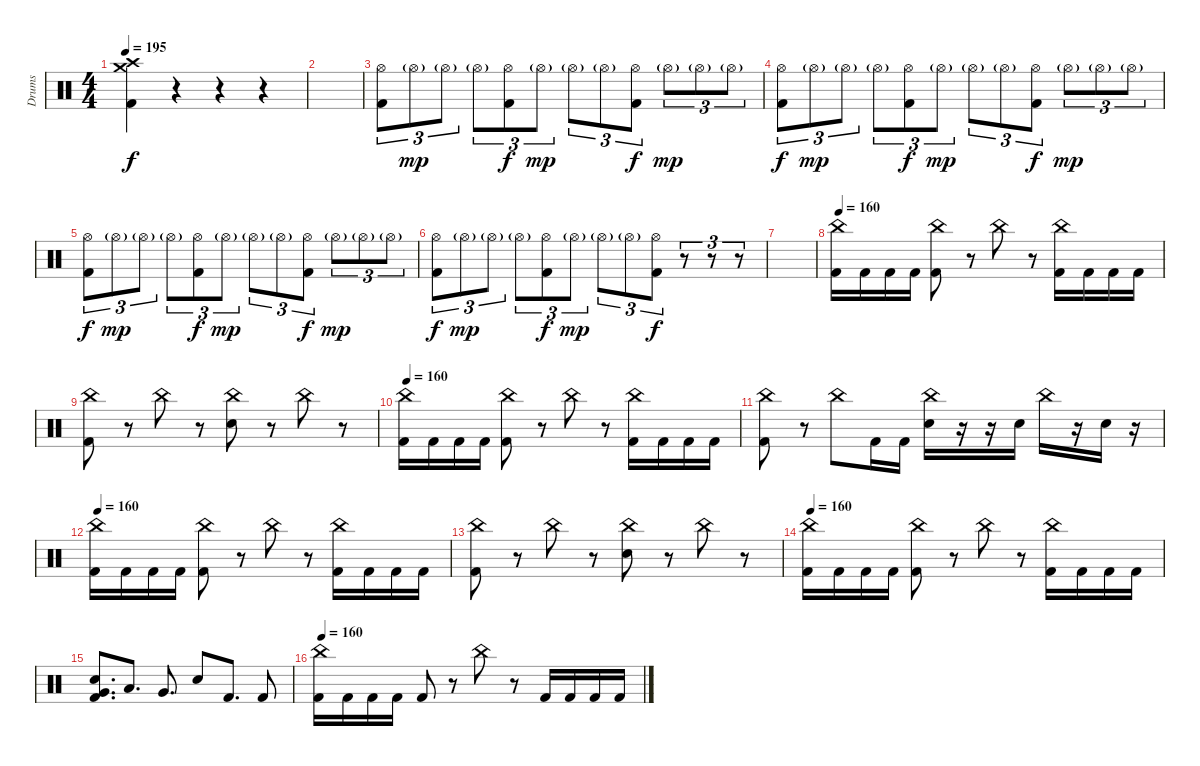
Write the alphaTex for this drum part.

\track ("Drums" "Drums") {instrument percussion}
\staff {score}
\articulation defaults
\ts (4 4)
\tempo 195
\clef neutral
\ks c
("Crash high (hit)" "Crash medium (hit)" "Kick (hit) 2").4{dy f} r.4 r.4 r.4 |
|
("Hi-Hat (open)" "Kick (hit) 2").8{tu (3 2)} "Hi-Hat (open)"{g}.8{tu (3 2) dy mp} "Hi-Hat (open)"{g}.8{tu (3 2)} "Hi-Hat (open)"{g}.8{tu (3 2)} ("Hi-Hat (open)" "Kick (hit) 2").8{tu (3 2) dy f} "Hi-Hat (open)"{g}.8{tu (3 2) dy mp} "Hi-Hat (open)"{g}.8{tu (3 2)} "Hi-Hat (open)"{g}.8{tu (3 2)} ("Hi-Hat (open)" "Kick (hit) 2").8{tu (3 2) dy f} "Hi-Hat (open)"{g}.8{tu (3 2) dy mp} "Hi-Hat (open)"{g}.8{tu (3 2)} "Hi-Hat (open)"{g}.8{tu (3 2)} |
("Hi-Hat (open)" "Kick (hit) 2").8{tu (3 2) dy f} "Hi-Hat (open)"{g}.8{tu (3 2) dy mp} "Hi-Hat (open)"{g}.8{tu (3 2)} "Hi-Hat (open)"{g}.8{tu (3 2)} ("Hi-Hat (open)" "Kick (hit) 2").8{tu (3 2) dy f} "Hi-Hat (open)"{g}.8{tu (3 2) dy mp} "Hi-Hat (open)"{g}.8{tu (3 2)} "Hi-Hat (open)"{g}.8{tu (3 2)} ("Hi-Hat (open)" "Kick (hit) 2").8{tu (3 2) dy f} "Hi-Hat (open)"{g}.8{tu (3 2) dy mp} "Hi-Hat (open)"{g}.8{tu (3 2)} "Hi-Hat (open)"{g}.8{tu (3 2)} |
("Hi-Hat (open)" "Kick (hit) 2").8{tu (3 2) dy f} "Hi-Hat (open)"{g}.8{tu (3 2) dy mp} "Hi-Hat (open)"{g}.8{tu (3 2)} "Hi-Hat (open)"{g}.8{tu (3 2)} ("Hi-Hat (open)" "Kick (hit) 2").8{tu (3 2) dy f} "Hi-Hat (open)"{g}.8{tu (3 2) dy mp} "Hi-Hat (open)"{g}.8{tu (3 2)} "Hi-Hat (open)"{g}.8{tu (3 2)} ("Hi-Hat (open)" "Kick (hit) 2").8{tu (3 2) dy f} "Hi-Hat (open)"{g}.8{tu (3 2) dy mp} "Hi-Hat (open)"{g}.8{tu (3 2)} "Hi-Hat (open)"{g}.8{tu (3 2)} |
("Hi-Hat (open)" "Kick (hit) 2").8{tu (3 2) dy f} "Hi-Hat (open)"{g}.8{tu (3 2) dy mp} "Hi-Hat (open)"{g}.8{tu (3 2)} "Hi-Hat (open)"{g}.8{tu (3 2)} ("Hi-Hat (open)" "Kick (hit) 2").8{tu (3 2) dy f} "Hi-Hat (open)"{g}.8{tu (3 2) dy mp} "Hi-Hat (open)"{g}.8{tu (3 2)} "Hi-Hat (open)"{g}.8{tu (3 2)} ("Hi-Hat (open)" "Kick (hit) 2").8{tu (3 2) dy f} r.8{tu (3 2)} r.8{tu (3 2)} r.8{tu (3 2)} |
|
\tempo 160
("China (hit)" "Kick (hit) 2").16 "Kick (hit) 2".16 "Kick (hit) 2".16 "Kick (hit) 2".16 ("China (hit)" "Kick (hit) 2").8 r.8 "China (hit)".8 r.8 ("China (hit)" "Kick (hit) 2").16 "Kick (hit) 2".16 "Kick (hit) 2".16 "Kick (hit) 2".16 |
("China (hit)" "Kick (hit) 2").8 r.8 "China (hit)".8 r.8 ("China (hit)" "Electric Snare (hit)").8 r.8 "China (hit)".8 r.8 |
\tempo 160
("China (hit)" "Kick (hit) 2").16 "Kick (hit) 2".16 "Kick (hit) 2".16 "Kick (hit) 2".16 ("China (hit)" "Kick (hit) 2").8 r.8 "China (hit)".8 r.8 ("China (hit)" "Kick (hit) 2").16 "Kick (hit) 2".16 "Kick (hit) 2".16 "Kick (hit) 2".16 |
("China (hit)" "Kick (hit) 2").8 r.8 "China (hit)".8 "Kick (hit) 2".16 "Kick (hit) 2".16 ("China (hit)" "Electric Snare (hit)").16 r.16 r.16 "Electric Snare (hit)".16 "China (hit)".16 r.16 "Electric Snare (hit)".16 r.16 |
\tempo 160
("China (hit)" "Kick (hit) 2").16 "Kick (hit) 2".16 "Kick (hit) 2".16 "Kick (hit) 2".16 ("China (hit)" "Kick (hit) 2").8 r.8 "China (hit)".8 r.8 ("China (hit)" "Kick (hit) 2").16 "Kick (hit) 2".16 "Kick (hit) 2".16 "Kick (hit) 2".16 |
("China (hit)" "Kick (hit) 2").8 r.8 "China (hit)".8 r.8 ("China (hit)" "Electric Snare (hit)").8 r.8 "China (hit)".8 r.8 |
\tempo 160
("China (hit)" "Kick (hit) 2").16 "Kick (hit) 2".16 "Kick (hit) 2".16 "Kick (hit) 2".16 ("China (hit)" "Kick (hit) 2").8 r.8 "China (hit)".8 r.8 ("China (hit)" "Kick (hit) 2").16 "Kick (hit) 2".16 "Kick (hit) 2".16 "Kick (hit) 2".16 |
("Very Low Tom (hit)" "Electric Snare (hit)" "Kick (hit) 2").8{d} "Low Tom (hit)".8{d} "Very Low Tom (hit)".8{d} "Electric Snare (hit)".8 "Kick (hit) 2".8{d} "Kick (hit) 2".8 |
\tempo 160
("China (hit)" "Kick (hit) 2").16 "Kick (hit) 2".16 "Kick (hit) 2".16 "Kick (hit) 2".16 "Kick (hit) 2".8 r.8 "China (hit)".8 r.8 "Kick (hit) 2".16 "Kick (hit) 2".16 "Kick (hit) 2".16 "Kick (hit) 2".16
